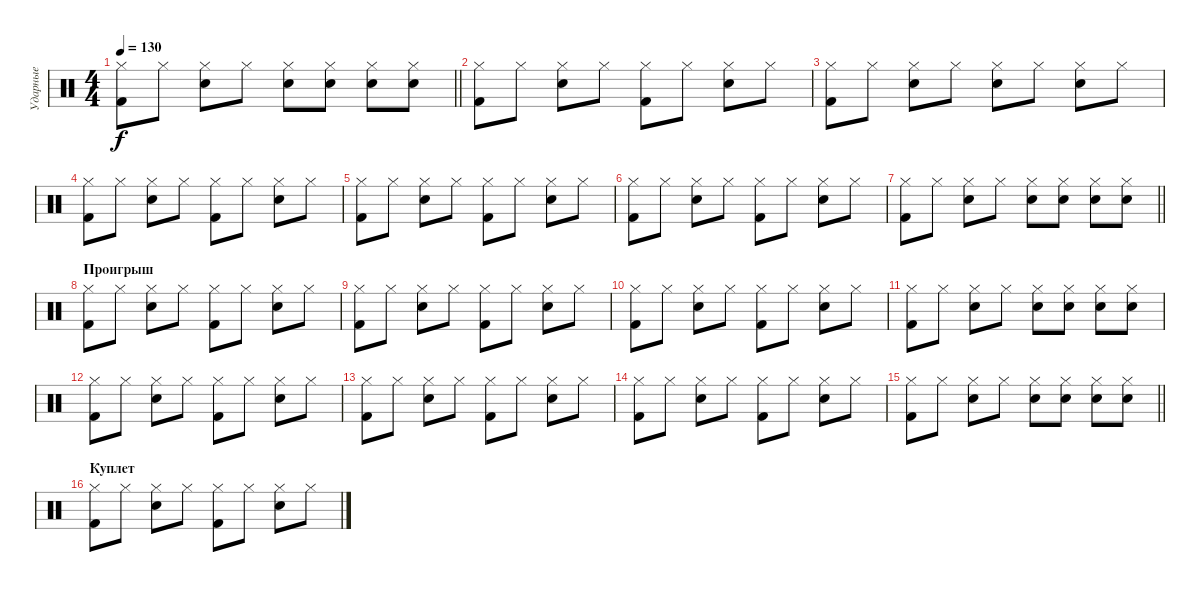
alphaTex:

\track ("Ударные" "Ударные") {instrument percussion}
\staff {score}
\articulation defaults
\ts (4 4)
\tempo 130
\clef neutral
\barLineRight lightlight
\ks c
("Hi-Hat (closed)" "Kick (hit) 2").8{dy f} "Hi-Hat (closed)".8 ("Hi-Hat (closed)" "Snare (hit) 2").8 "Hi-Hat (closed)".8 ("Hi-Hat (closed)" "Snare (hit) 2").8 ("Hi-Hat (closed)" "Snare (hit) 2").8 ("Hi-Hat (closed)" "Snare (hit) 2").8 ("Hi-Hat (closed)" "Snare (hit) 2").8 |
("Hi-Hat (closed)" "Kick (hit) 2").8 "Hi-Hat (closed)".8 ("Hi-Hat (closed)" "Snare (hit) 2").8 "Hi-Hat (closed)".8 ("Hi-Hat (closed)" "Kick (hit) 2").8 "Hi-Hat (closed)".8 ("Hi-Hat (closed)" "Snare (hit) 2").8 "Hi-Hat (closed)".8 |
("Hi-Hat (closed)" "Kick (hit) 2").8 "Hi-Hat (closed)".8 ("Hi-Hat (closed)" "Snare (hit) 2").8 "Hi-Hat (closed)".8 ("Hi-Hat (closed)" "Snare (hit) 2").8 "Hi-Hat (closed)".8 ("Hi-Hat (closed)" "Snare (hit) 2").8 "Hi-Hat (closed)".8 |
("Hi-Hat (closed)" "Kick (hit) 2").8 "Hi-Hat (closed)".8 ("Hi-Hat (closed)" "Snare (hit) 2").8 "Hi-Hat (closed)".8 ("Hi-Hat (closed)" "Kick (hit) 2").8 "Hi-Hat (closed)".8 ("Hi-Hat (closed)" "Snare (hit) 2").8 "Hi-Hat (closed)".8 |
("Hi-Hat (closed)" "Kick (hit) 2").8 "Hi-Hat (closed)".8 ("Hi-Hat (closed)" "Snare (hit) 2").8 "Hi-Hat (closed)".8 ("Hi-Hat (closed)" "Kick (hit) 2").8 "Hi-Hat (closed)".8 ("Hi-Hat (closed)" "Snare (hit) 2").8 "Hi-Hat (closed)".8 |
("Hi-Hat (closed)" "Kick (hit) 2").8 "Hi-Hat (closed)".8 ("Hi-Hat (closed)" "Snare (hit) 2").8 "Hi-Hat (closed)".8 ("Hi-Hat (closed)" "Kick (hit) 2").8 "Hi-Hat (closed)".8 ("Hi-Hat (closed)" "Snare (hit) 2").8 "Hi-Hat (closed)".8 |
\barLineRight lightlight
("Hi-Hat (closed)" "Kick (hit) 2").8 "Hi-Hat (closed)".8 ("Hi-Hat (closed)" "Snare (hit) 2").8 "Hi-Hat (closed)".8 ("Hi-Hat (closed)" "Snare (hit) 2").8 ("Hi-Hat (closed)" "Snare (hit) 2").8 ("Hi-Hat (closed)" "Snare (hit) 2").8 ("Hi-Hat (closed)" "Snare (hit) 2").8 |
\section ("" "Проигрыш")
("Hi-Hat (closed)" "Kick (hit) 2").8 "Hi-Hat (closed)".8 ("Hi-Hat (closed)" "Snare (hit) 2").8 "Hi-Hat (closed)".8 ("Hi-Hat (closed)" "Kick (hit) 2").8 "Hi-Hat (closed)".8 ("Hi-Hat (closed)" "Snare (hit) 2").8 "Hi-Hat (closed)".8 |
("Hi-Hat (closed)" "Kick (hit) 2").8 "Hi-Hat (closed)".8 ("Hi-Hat (closed)" "Snare (hit) 2").8 "Hi-Hat (closed)".8 ("Hi-Hat (closed)" "Kick (hit) 2").8 "Hi-Hat (closed)".8 ("Hi-Hat (closed)" "Snare (hit) 2").8 "Hi-Hat (closed)".8 |
("Hi-Hat (closed)" "Kick (hit) 2").8 "Hi-Hat (closed)".8 ("Hi-Hat (closed)" "Snare (hit) 2").8 "Hi-Hat (closed)".8 ("Hi-Hat (closed)" "Kick (hit) 2").8 "Hi-Hat (closed)".8 ("Hi-Hat (closed)" "Snare (hit) 2").8 "Hi-Hat (closed)".8 |
("Hi-Hat (closed)" "Kick (hit) 2").8 "Hi-Hat (closed)".8 ("Hi-Hat (closed)" "Snare (hit) 2").8 "Hi-Hat (closed)".8 ("Hi-Hat (closed)" "Snare (hit) 2").8 ("Hi-Hat (closed)" "Snare (hit) 2").8 ("Hi-Hat (closed)" "Snare (hit) 2").8 ("Hi-Hat (closed)" "Snare (hit) 2").8 |
("Hi-Hat (closed)" "Kick (hit) 2").8 "Hi-Hat (closed)".8 ("Hi-Hat (closed)" "Snare (hit) 2").8 "Hi-Hat (closed)".8 ("Hi-Hat (closed)" "Kick (hit) 2").8 "Hi-Hat (closed)".8 ("Hi-Hat (closed)" "Snare (hit) 2").8 "Hi-Hat (closed)".8 |
("Hi-Hat (closed)" "Kick (hit) 2").8 "Hi-Hat (closed)".8 ("Hi-Hat (closed)" "Snare (hit) 2").8 "Hi-Hat (closed)".8 ("Hi-Hat (closed)" "Kick (hit) 2").8 "Hi-Hat (closed)".8 ("Hi-Hat (closed)" "Snare (hit) 2").8 "Hi-Hat (closed)".8 |
("Hi-Hat (closed)" "Kick (hit) 2").8 "Hi-Hat (closed)".8 ("Hi-Hat (closed)" "Snare (hit) 2").8 "Hi-Hat (closed)".8 ("Hi-Hat (closed)" "Kick (hit) 2").8 "Hi-Hat (closed)".8 ("Hi-Hat (closed)" "Snare (hit) 2").8 "Hi-Hat (closed)".8 |
\barLineRight lightlight
("Hi-Hat (closed)" "Kick (hit) 2").8 "Hi-Hat (closed)".8 ("Hi-Hat (closed)" "Snare (hit) 2").8 "Hi-Hat (closed)".8 ("Hi-Hat (closed)" "Snare (hit) 2").8 ("Hi-Hat (closed)" "Snare (hit) 2").8 ("Hi-Hat (closed)" "Snare (hit) 2").8 ("Hi-Hat (closed)" "Snare (hit) 2").8 |
\section ("" "Куплет")
("Hi-Hat (closed)" "Kick (hit) 2").8 "Hi-Hat (closed)".8 ("Hi-Hat (closed)" "Snare (hit) 2").8 "Hi-Hat (closed)".8 ("Hi-Hat (closed)" "Kick (hit) 2").8 "Hi-Hat (closed)".8 ("Hi-Hat (closed)" "Snare (hit) 2").8 "Hi-Hat (closed)".8
